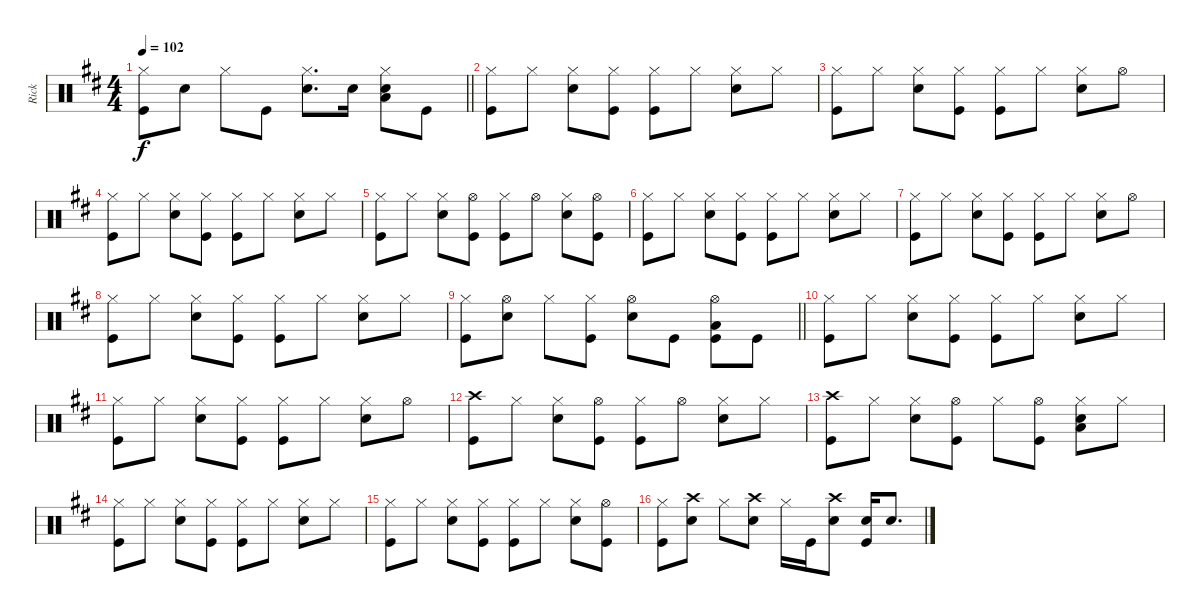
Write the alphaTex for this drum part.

\track ("Rick" "Rick") {instrument percussion}
\staff {score}
\articulation defaults
\ts (4 4)
\tempo 102
\clef neutral
\barLineRight lightlight
\ks d
("Hi-Hat (closed)" "Kick (hit)").8{dy f} "Snare (hit) 2".8 "Hi-Hat (closed)".8 "Kick (hit)".8 ("Hi-Hat (closed)" "Snare (hit) 2").8{d} "Snare (hit) 2".16 ("Hi-Hat (closed)" "Snare (hit) 2" "Low Tom (hit)").8 "Kick (hit)".8 |
("Hi-Hat (closed)" "Kick (hit)").8 "Hi-Hat (closed)".8 ("Hi-Hat (closed)" "Snare (hit) 2").8 ("Hi-Hat (closed)" "Kick (hit)").8 ("Hi-Hat (closed)" "Kick (hit)").8 "Hi-Hat (closed)".8 ("Hi-Hat (closed)" "Snare (hit) 2").8 "Hi-Hat (closed)".8 |
("Hi-Hat (closed)" "Kick (hit)").8 "Hi-Hat (closed)".8 ("Hi-Hat (closed)" "Snare (hit) 2").8 ("Hi-Hat (closed)" "Kick (hit)").8 ("Hi-Hat (closed)" "Kick (hit)").8 "Hi-Hat (closed)".8 ("Hi-Hat (closed)" "Snare (hit) 2").8 "Hi-Hat (open)".8 |
("Hi-Hat (closed)" "Kick (hit)").8 "Hi-Hat (closed)".8 ("Hi-Hat (closed)" "Snare (hit) 2").8 ("Hi-Hat (closed)" "Kick (hit)").8 ("Hi-Hat (closed)" "Kick (hit)").8 "Hi-Hat (closed)".8 ("Hi-Hat (closed)" "Snare (hit) 2").8 "Hi-Hat (closed)".8 |
("Hi-Hat (closed)" "Kick (hit)").8 "Hi-Hat (closed)".8 ("Hi-Hat (closed)" "Snare (hit) 2").8 ("Hi-Hat (open)" "Kick (hit)").8 ("Hi-Hat (closed)" "Kick (hit)").8 "Hi-Hat (open)".8 ("Hi-Hat (closed)" "Snare (hit) 2").8 ("Hi-Hat (open)" "Kick (hit)").8 |
("Hi-Hat (closed)" "Kick (hit)").8 "Hi-Hat (closed)".8 ("Hi-Hat (closed)" "Snare (hit) 2").8 ("Hi-Hat (closed)" "Kick (hit)").8 ("Hi-Hat (closed)" "Kick (hit)").8 "Hi-Hat (closed)".8 ("Hi-Hat (closed)" "Snare (hit) 2").8 "Hi-Hat (closed)".8 |
("Hi-Hat (closed)" "Kick (hit)").8 "Hi-Hat (closed)".8 ("Hi-Hat (closed)" "Snare (hit) 2").8 ("Hi-Hat (closed)" "Kick (hit)").8 ("Hi-Hat (closed)" "Kick (hit)").8 "Hi-Hat (closed)".8 ("Hi-Hat (closed)" "Snare (hit) 2").8 "Hi-Hat (open)".8 |
("Hi-Hat (closed)" "Kick (hit)").8 "Hi-Hat (closed)".8 ("Hi-Hat (closed)" "Snare (hit) 2").8 ("Hi-Hat (closed)" "Kick (hit)").8 ("Hi-Hat (closed)" "Kick (hit)").8 "Hi-Hat (closed)".8 ("Hi-Hat (closed)" "Snare (hit) 2").8 "Hi-Hat (closed)".8 |
\barLineRight lightlight
("Hi-Hat (closed)" "Kick (hit)").8 ("Hi-Hat (open)" "Snare (hit) 2").8 "Hi-Hat (closed)".8 ("Hi-Hat (closed)" "Kick (hit)").8 ("Hi-Hat (open)" "Snare (hit) 2").8 "Kick (hit)".8 ("Hi-Hat (open)" "Low Tom (hit)" "Kick (hit)").8 "Kick (hit)".8 |
("Hi-Hat (closed)" "Kick (hit)").8 "Hi-Hat (closed)".8 ("Hi-Hat (closed)" "Snare (hit) 2").8 ("Hi-Hat (closed)" "Kick (hit)").8 ("Hi-Hat (closed)" "Kick (hit)").8 "Hi-Hat (closed)".8 ("Hi-Hat (closed)" "Snare (hit) 2").8 "Hi-Hat (closed)".8 |
("Hi-Hat (closed)" "Kick (hit)").8 "Hi-Hat (closed)".8 ("Hi-Hat (closed)" "Snare (hit) 2").8 ("Hi-Hat (closed)" "Kick (hit)").8 ("Hi-Hat (closed)" "Kick (hit)").8 "Hi-Hat (closed)".8 ("Hi-Hat (closed)" "Snare (hit) 2").8 "Hi-Hat (open)".8 |
("Crash high (hit)" "Kick (hit)").8 "Hi-Hat (closed)".8 ("Hi-Hat (closed)" "Snare (hit) 2").8 ("Hi-Hat (open)" "Kick (hit)").8 ("Hi-Hat (closed)" "Kick (hit)").8 "Hi-Hat (open)".8 ("Hi-Hat (closed)" "Snare (hit) 2").8 "Hi-Hat (closed)".8 |
("Crash high (hit)" "Kick (hit)").8 "Hi-Hat (closed)".8 ("Hi-Hat (closed)" "Snare (hit) 2").8 ("Hi-Hat (open)" "Kick (hit)").8 "Hi-Hat (closed)".8 ("Hi-Hat (open)" "Kick (hit)").8 ("Hi-Hat (closed)" "Snare (hit) 2" "Low Tom (hit)").8 "Hi-Hat (closed)".8 |
("Hi-Hat (closed)" "Kick (hit)").8 "Hi-Hat (closed)".8 ("Hi-Hat (closed)" "Snare (hit) 2").8 ("Hi-Hat (closed)" "Kick (hit)").8 ("Hi-Hat (closed)" "Kick (hit)").8 "Hi-Hat (closed)".8 ("Hi-Hat (closed)" "Snare (hit) 2").8 "Hi-Hat (closed)".8 |
("Hi-Hat (closed)" "Kick (hit)").8 "Hi-Hat (closed)".8 ("Hi-Hat (closed)" "Snare (hit) 2").8 ("Hi-Hat (closed)" "Kick (hit)").8 ("Hi-Hat (closed)" "Kick (hit)").8 "Hi-Hat (closed)".8 ("Hi-Hat (closed)" "Snare (hit) 2").8 ("Hi-Hat (open)" "Kick (hit)").8 |
("Hi-Hat (closed)" "Kick (hit)").8 ("Crash high (hit)" "Snare (hit) 2").8 "Hi-Hat (closed)".8 ("Crash high (hit)" "Snare (hit) 2").8 "Hi-Hat (closed)".16 "Kick (hit)".16 ("Crash high (hit)" "Snare (hit) 2").8 ("Snare (hit) 2" "Kick (hit)").16 "Snare (hit) 2".8{d}
